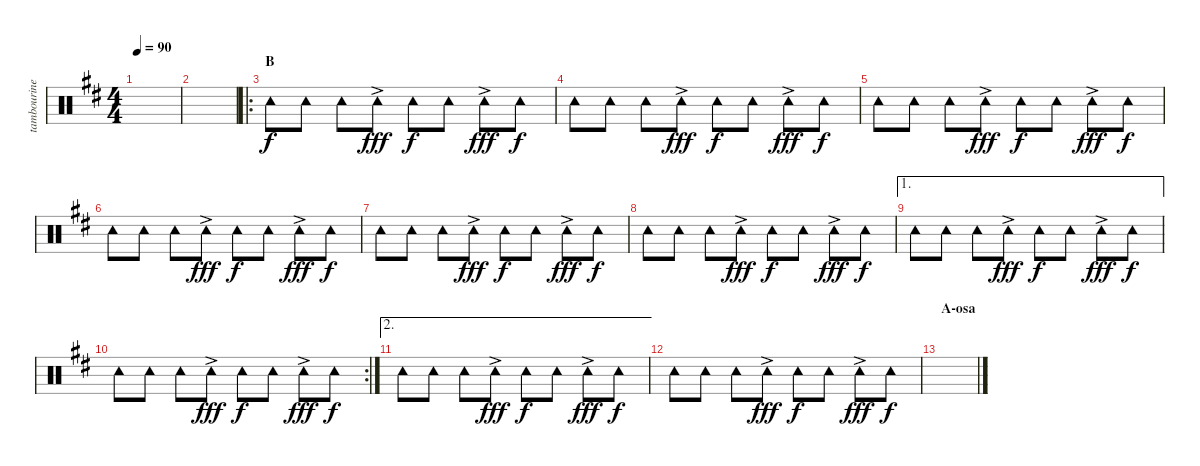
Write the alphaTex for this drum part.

\track ("tambourine" "tambourine") {instrument percussion}
\staff {score}
\articulation defaults
\ts (4 4)
\tempo 90
\clef neutral
\ks d
|
|
\ro
\section ("" "B")
"Tambourine (hit)".8 "Tambourine (hit)".8 "Tambourine (hit)".8 "Tambourine (hit)"{ac}.8{dy fff} "Tambourine (hit)".8{dy f} "Tambourine (hit)".8 "Tambourine (hit)"{ac}.8{dy fff} "Tambourine (hit)".8{dy f} |
"Tambourine (hit)".8 "Tambourine (hit)".8 "Tambourine (hit)".8 "Tambourine (hit)"{ac}.8{dy fff} "Tambourine (hit)".8{dy f} "Tambourine (hit)".8 "Tambourine (hit)"{ac}.8{dy fff} "Tambourine (hit)".8{dy f} |
"Tambourine (hit)".8 "Tambourine (hit)".8 "Tambourine (hit)".8 "Tambourine (hit)"{ac}.8{dy fff} "Tambourine (hit)".8{dy f} "Tambourine (hit)".8 "Tambourine (hit)"{ac}.8{dy fff} "Tambourine (hit)".8{dy f} |
"Tambourine (hit)".8 "Tambourine (hit)".8 "Tambourine (hit)".8 "Tambourine (hit)"{ac}.8{dy fff} "Tambourine (hit)".8{dy f} "Tambourine (hit)".8 "Tambourine (hit)"{ac}.8{dy fff} "Tambourine (hit)".8{dy f} |
"Tambourine (hit)".8 "Tambourine (hit)".8 "Tambourine (hit)".8 "Tambourine (hit)"{ac}.8{dy fff} "Tambourine (hit)".8{dy f} "Tambourine (hit)".8 "Tambourine (hit)"{ac}.8{dy fff} "Tambourine (hit)".8{dy f} |
"Tambourine (hit)".8 "Tambourine (hit)".8 "Tambourine (hit)".8 "Tambourine (hit)"{ac}.8{dy fff} "Tambourine (hit)".8{dy f} "Tambourine (hit)".8 "Tambourine (hit)"{ac}.8{dy fff} "Tambourine (hit)".8{dy f} |
\ae 1 "Tambourine (hit)".8 "Tambourine (hit)".8 "Tambourine (hit)".8 "Tambourine (hit)"{ac}.8{dy fff} "Tambourine (hit)".8{dy f} "Tambourine (hit)".8 "Tambourine (hit)"{ac}.8{dy fff} "Tambourine (hit)".8{dy f}
|
\rc 2 "Tambourine (hit)".8 "Tambourine (hit)".8 "Tambourine (hit)".8 "Tambourine (hit)"{ac}.8{dy fff} "Tambourine (hit)".8{dy f} "Tambourine (hit)".8 "Tambourine (hit)"{ac}.8{dy fff} "Tambourine (hit)".8{dy f}
|
\ae 2 "Tambourine (hit)".8 "Tambourine (hit)".8 "Tambourine (hit)".8 "Tambourine (hit)"{ac}.8{dy fff} "Tambourine (hit)".8{dy f} "Tambourine (hit)".8 "Tambourine (hit)"{ac}.8{dy fff} "Tambourine (hit)".8{dy f}
|
"Tambourine (hit)".8 "Tambourine (hit)".8 "Tambourine (hit)".8 "Tambourine (hit)"{ac}.8{dy fff} "Tambourine (hit)".8{dy f} "Tambourine (hit)".8 "Tambourine (hit)"{ac}.8{dy fff} "Tambourine (hit)".8{dy f} |
\section ("" "A-osa")
